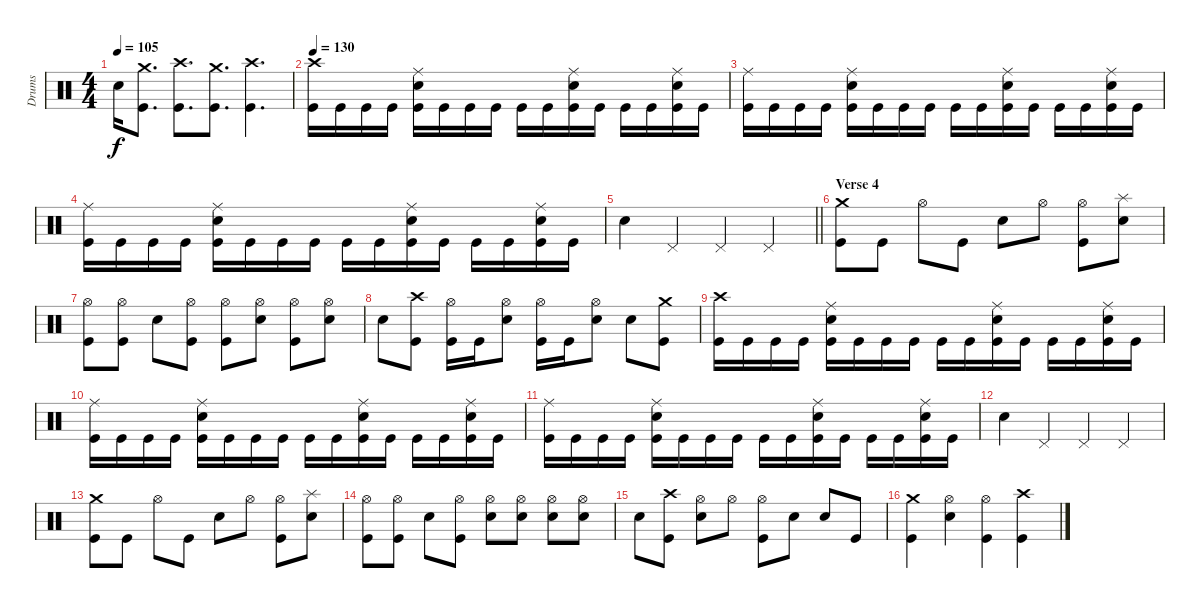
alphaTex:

\track ("Drums" "Drums") {instrument percussion}
\staff {score}
\articulation defaults
\ts (4 4)
\tempo 105
\clef neutral
\ks c "Snare (hit) 2".16{dy f}
("Crash medium (hit)" "Kick (hit)").8{d} ("Crash high (hit)" "Kick (hit)").8{d} ("Crash medium (hit)" "Kick (hit)").8{d} ("Crash high (hit)" "Kick (hit)").4{d} |
\tempo 130
("Crash high (hit)" "Kick (hit)").16 "Kick (hit)".16 "Kick (hit)".16 "Kick (hit)".16 ("Ride (middle)" "Snare (hit) 2" "Kick (hit)").16 "Kick (hit)".16 "Kick (hit)".16 "Kick (hit)".16 "Kick (hit)".16 "Kick (hit)".16 ("Ride (middle)" "Snare (hit) 2" "Kick (hit)").16 "Kick (hit)".16 "Kick (hit)".16 "Kick (hit)".16 ("Ride (middle)" "Snare (hit) 2" "Kick (hit)").16 "Kick (hit)".16 |
("Ride (middle)" "Kick (hit)").16 "Kick (hit)".16 "Kick (hit)".16 "Kick (hit)".16 ("Ride (middle)" "Snare (hit) 2" "Kick (hit)").16 "Kick (hit)".16 "Kick (hit)".16 "Kick (hit)".16 "Kick (hit)".16 "Kick (hit)".16 ("Ride (middle)" "Snare (hit) 2" "Kick (hit)").16 "Kick (hit)".16 "Kick (hit)".16 "Kick (hit)".16 ("Ride (middle)" "Snare (hit) 2" "Kick (hit)").16 "Kick (hit)".16 |
("Ride (middle)" "Kick (hit)").16 "Kick (hit)".16 "Kick (hit)".16 "Kick (hit)".16 ("Ride (middle)" "Snare (hit) 2" "Kick (hit)").16 "Kick (hit)".16 "Kick (hit)".16 "Kick (hit)".16 "Kick (hit)".16 "Kick (hit)".16 ("Ride (middle)" "Snare (hit) 2" "Kick (hit)").16 "Kick (hit)".16 "Kick (hit)".16 "Kick (hit)".16 ("Ride (middle)" "Snare (hit) 2" "Kick (hit)").16 "Kick (hit)".16 |
\barLineRight lightlight "Snare (hit) 2".4 "Pedal Hi-Hat (hit)".4 "Pedal Hi-Hat (hit)".4 "Pedal Hi-Hat (hit)".4
|
\section ("" "Verse 4")
("Crash medium (hit)" "Kick (hit)").8 "Kick (hit)".8 "Hi-Hat (open)".8 "Kick (hit)".8 "Snare (hit) 2".8 "Hi-Hat (open)".8 ("Hi-Hat (open)" "Kick (hit)").8 ("Splash (hit)" "Snare (hit) 2").8 |
("Hi-Hat (open)" "Kick (hit)").8 ("Hi-Hat (open)" "Kick (hit)").8 "Snare (hit) 2".8 ("Hi-Hat (open)" "Kick (hit)").8 ("Hi-Hat (open)" "Kick (hit)").8 ("Hi-Hat (open)" "Snare (hit) 2").8 ("Hi-Hat (open)" "Kick (hit)").8 ("Hi-Hat (open)" "Snare (hit) 2").8 |
"Snare (hit) 2".8 ("Crash high (hit)" "Kick (hit)").8 ("Hi-Hat (open)" "Kick (hit)").16 "Kick (hit)".16 ("Hi-Hat (open)" "Snare (hit) 2").8 ("Hi-Hat (open)" "Kick (hit)").16 "Kick (hit)".16 ("Hi-Hat (open)" "Snare (hit) 2").8 "Snare (hit) 2".8 ("Crash medium (hit)" "Kick (hit)").8 |
("Crash high (hit)" "Kick (hit)").16 "Kick (hit)".16 "Kick (hit)".16 "Kick (hit)".16 ("Ride (middle)" "Snare (hit) 2" "Kick (hit)").16 "Kick (hit)".16 "Kick (hit)".16 "Kick (hit)".16 "Kick (hit)".16 "Kick (hit)".16 ("Ride (middle)" "Snare (hit) 2" "Kick (hit)").16 "Kick (hit)".16 "Kick (hit)".16 "Kick (hit)".16 ("Ride (middle)" "Snare (hit) 2" "Kick (hit)").16 "Kick (hit)".16 |
("Ride (middle)" "Kick (hit)").16 "Kick (hit)".16 "Kick (hit)".16 "Kick (hit)".16 ("Ride (middle)" "Snare (hit) 2" "Kick (hit)").16 "Kick (hit)".16 "Kick (hit)".16 "Kick (hit)".16 "Kick (hit)".16 "Kick (hit)".16 ("Ride (middle)" "Snare (hit) 2" "Kick (hit)").16 "Kick (hit)".16 "Kick (hit)".16 "Kick (hit)".16 ("Ride (middle)" "Snare (hit) 2" "Kick (hit)").16 "Kick (hit)".16 |
("Ride (middle)" "Kick (hit)").16 "Kick (hit)".16 "Kick (hit)".16 "Kick (hit)".16 ("Ride (middle)" "Snare (hit) 2" "Kick (hit)").16 "Kick (hit)".16 "Kick (hit)".16 "Kick (hit)".16 "Kick (hit)".16 "Kick (hit)".16 ("Ride (middle)" "Snare (hit) 2" "Kick (hit)").16 "Kick (hit)".16 "Kick (hit)".16 "Kick (hit)".16 ("Ride (middle)" "Snare (hit) 2" "Kick (hit)").16 "Kick (hit)".16 |
"Snare (hit) 2".4 "Pedal Hi-Hat (hit)".4 "Pedal Hi-Hat (hit)".4 "Pedal Hi-Hat (hit)".4 |
("Crash medium (hit)" "Kick (hit)").8 "Kick (hit)".8 "Hi-Hat (open)".8 "Kick (hit)".8 "Snare (hit) 2".8 "Hi-Hat (open)".8 ("Hi-Hat (open)" "Kick (hit)").8 ("Splash (hit)" "Snare (hit) 2").8 |
("Hi-Hat (open)" "Kick (hit)").8 ("Hi-Hat (open)" "Kick (hit)").8 "Snare (hit) 2".8 ("Hi-Hat (open)" "Kick (hit)").8 ("Hi-Hat (open)" "Snare (hit) 2").8 ("Hi-Hat (open)" "Snare (hit) 2").8 ("Hi-Hat (open)" "Snare (hit) 2").8 ("Hi-Hat (open)" "Snare (hit) 2").8 |
"Snare (hit) 2".8 ("Crash high (hit)" "Kick (hit)").8 ("Hi-Hat (open)" "Snare (hit) 2").8 "Hi-Hat (open)".8 ("Hi-Hat (open)" "Kick (hit)").8 "Snare (hit) 2".8 "Snare (hit) 2".8 "Kick (hit)".8 |
("Crash medium (hit)" "Kick (hit)").4 ("Hi-Hat (open)" "Snare (hit) 2").4 ("Hi-Hat (open)" "Kick (hit)").4 ("Crash high (hit)" "Kick (hit)").4
